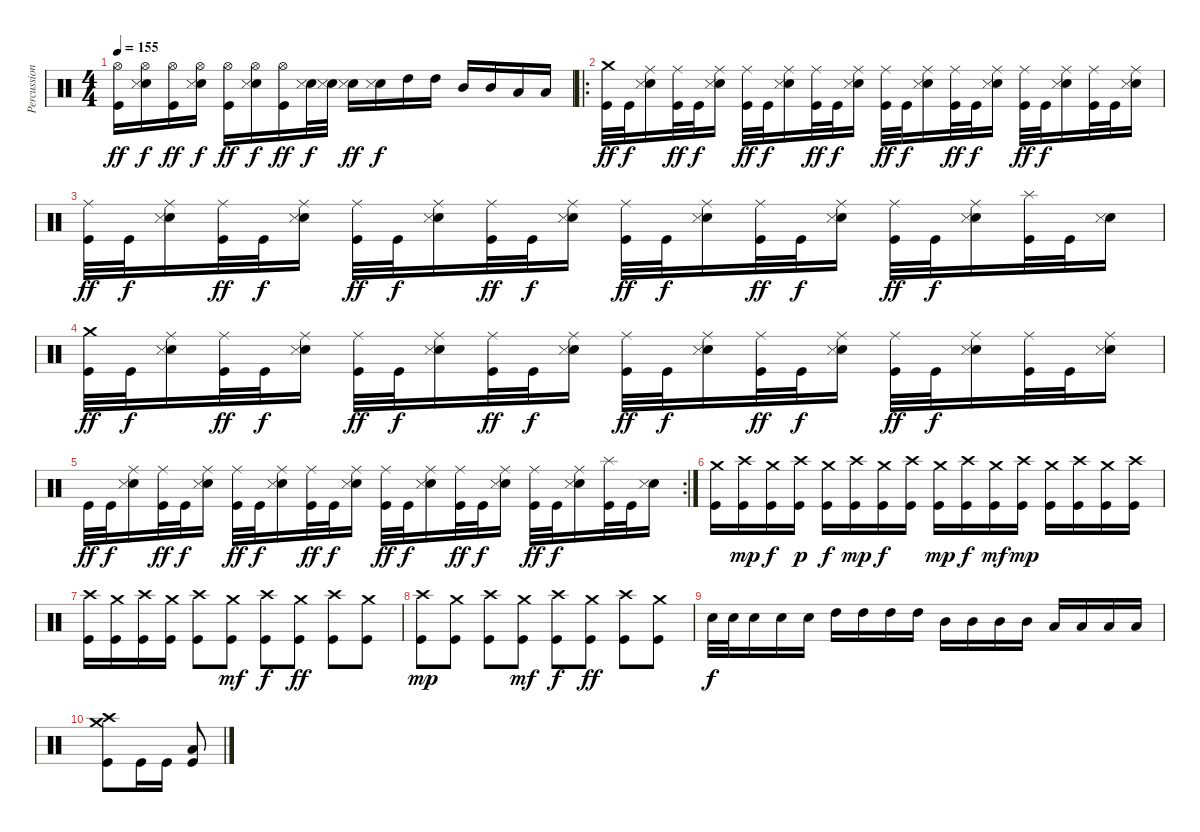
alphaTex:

\track ("Percussions" "Percussion") {instrument percussion}
\staff {score}
\articulation defaults
\ts (4 4)
\tempo 155
\clef neutral
\ks c
("Hi-Hat (open)" "Kick (hit)").16{dy ff} ("Hi-Hat (open)" "Electric Snare (hit)" "Snare (side stick) 3").16{dy f} ("Hi-Hat (open)" "Kick (hit)").16{dy ff} ("Hi-Hat (open)" "Electric Snare (hit)" "Snare (side stick) 3").16{dy f} ("Hi-Hat (open)" "Kick (hit)").16{dy ff} ("Hi-Hat (open)" "Electric Snare (hit)" "Snare (side stick) 3").16{dy f} ("Hi-Hat (open)" "Kick (hit)").16{dy ff} ("Electric Snare (hit)" "Snare (side stick) 3").32{dy f} ("Electric Snare (hit)" "Snare (side stick) 3").32 ("Electric Snare (hit)" "Snare (side stick) 3").16{dy ff} ("Electric Snare (hit)" "Snare (side stick) 3").16{dy f} "High Tom (hit)".16 "High Tom (hit)".16 "Mid Tom (hit)".16 "Mid Tom (hit)".16 "Low Tom (hit)".16 "Low Tom (hit)".16 |
\ro
("Crash medium (hit)" "Kick (hit)").32{dy ff} "Kick (hit)".32{dy f} ("Ride (middle)" "Electric Snare (hit)" "Snare (side stick) 3").16 ("Ride (middle)" "Kick (hit)").32{dy ff} "Kick (hit)".32{dy f} ("Ride (middle)" "Electric Snare (hit)" "Snare (side stick) 3").16 ("Ride (middle)" "Kick (hit)").32{dy ff} "Kick (hit)".32{dy f} ("Ride (middle)" "Electric Snare (hit)" "Snare (side stick) 3").16 ("Ride (middle)" "Kick (hit)").32{dy ff} "Kick (hit)".32{dy f} ("Ride (middle)" "Electric Snare (hit)" "Snare (side stick) 3").16 ("Ride (middle)" "Kick (hit)").32{dy ff} "Kick (hit)".32{dy f} ("Ride (middle)" "Electric Snare (hit)" "Snare (side stick) 3").16 ("Ride (middle)" "Kick (hit)").32{dy ff} "Kick (hit)".32{dy f} ("Ride (middle)" "Electric Snare (hit)" "Snare (side stick) 3").16 ("Ride (middle)" "Kick (hit)").32{dy ff} "Kick (hit)".32{dy f} ("Ride (middle)" "Electric Snare (hit)" "Snare (side stick) 3").16 ("Ride (middle)" "Kick (hit)").32 "Kick (hit)".32 ("Ride (middle)" "Electric Snare (hit)" "Snare (side stick) 3").16 |
("Ride (middle)" "Kick (hit)").32{dy ff} "Kick (hit)".32{dy f} ("Ride (middle)" "Electric Snare (hit)" "Snare (side stick) 3").16 ("Ride (middle)" "Kick (hit)").32{dy ff} "Kick (hit)".32{dy f} ("Ride (middle)" "Electric Snare (hit)" "Snare (side stick) 3").16 ("Ride (middle)" "Kick (hit)").32{dy ff} "Kick (hit)".32{dy f} ("Ride (middle)" "Electric Snare (hit)" "Snare (side stick) 3").16 ("Ride (middle)" "Kick (hit)").32{dy ff} "Kick (hit)".32{dy f} ("Ride (middle)" "Electric Snare (hit)" "Snare (side stick) 3").16 ("Ride (middle)" "Kick (hit)").32{dy ff} "Kick (hit)".32{dy f} ("Ride (middle)" "Electric Snare (hit)" "Snare (side stick) 3").16 ("Ride (middle)" "Kick (hit)").32{dy ff} "Kick (hit)".32{dy f} ("Ride (middle)" "Electric Snare (hit)" "Snare (side stick) 3").16 ("Ride (middle)" "Kick (hit)").32{dy ff} "Kick (hit)".32{dy f} ("Ride (middle)" "Electric Snare (hit)" "Snare (side stick) 3").16 ("Splash (hit)" "Kick (hit)").32 "Kick (hit)".32 ("Electric Snare (hit)" "Snare (side stick) 3").16 |
("Crash medium (hit)" "Kick (hit)").32{dy ff} "Kick (hit)".32{dy f} ("Ride (middle)" "Electric Snare (hit)" "Snare (side stick) 3").16 ("Ride (middle)" "Kick (hit)").32{dy ff} "Kick (hit)".32{dy f} ("Ride (middle)" "Electric Snare (hit)" "Snare (side stick) 3").16 ("Ride (middle)" "Kick (hit)").32{dy ff} "Kick (hit)".32{dy f} ("Ride (middle)" "Electric Snare (hit)" "Snare (side stick) 3").16 ("Ride (middle)" "Kick (hit)").32{dy ff} "Kick (hit)".32{dy f} ("Ride (middle)" "Electric Snare (hit)" "Snare (side stick) 3").16 ("Ride (middle)" "Kick (hit)").32{dy ff} "Kick (hit)".32{dy f} ("Ride (middle)" "Electric Snare (hit)" "Snare (side stick) 3").16 ("Ride (middle)" "Kick (hit)").32{dy ff} "Kick (hit)".32{dy f} ("Ride (middle)" "Electric Snare (hit)" "Snare (side stick) 3").16 ("Ride (middle)" "Kick (hit)").32{dy ff} "Kick (hit)".32{dy f} ("Ride (middle)" "Electric Snare (hit)" "Snare (side stick) 3").16 ("Ride (middle)" "Kick (hit)").32 "Kick (hit)".32 ("Ride (middle)" "Electric Snare (hit)" "Snare (side stick) 3").16 |
\rc 2 "Kick (hit)".32{dy ff} "Kick (hit)".32{dy f}
("Ride (middle)" "Electric Snare (hit)" "Snare (side stick) 3").16 ("Ride (middle)" "Kick (hit)").32{dy ff} "Kick (hit)".32{dy f} ("Ride (middle)" "Electric Snare (hit)" "Snare (side stick) 3").16 ("Ride (middle)" "Kick (hit)").32{dy ff} "Kick (hit)".32{dy f} ("Ride (middle)" "Electric Snare (hit)" "Snare (side stick) 3").16 ("Ride (middle)" "Kick (hit)").32{dy ff} "Kick (hit)".32{dy f} ("Ride (middle)" "Electric Snare (hit)" "Snare (side stick) 3").16 ("Ride (middle)" "Kick (hit)").32{dy ff} "Kick (hit)".32{dy f} ("Ride (middle)" "Electric Snare (hit)" "Snare (side stick) 3").16 ("Ride (middle)" "Kick (hit)").32{dy ff} "Kick (hit)".32{dy f} ("Ride (middle)" "Electric Snare (hit)" "Snare (side stick) 3").16 ("Ride (middle)" "Kick (hit)").32{dy ff} "Kick (hit)".32{dy f} ("Ride (middle)" "Electric Snare (hit)" "Snare (side stick) 3").16 ("Splash (hit)" "Kick (hit)").32 "Kick (hit)".32 ("Electric Snare (hit)" "Snare (side stick) 3").16 |
("Crash medium (hit)" "Kick (hit)").16 ("Crash high (hit)" "Kick (hit)").16{dy mp} ("Crash medium (hit)" "Kick (hit)").16{dy f} ("Crash high (hit)" "Kick (hit)").16{dy p} ("Crash medium (hit)" "Kick (hit)").16{dy f} ("Crash high (hit)" "Kick (hit)").16{dy mp} ("Crash medium (hit)" "Kick (hit)").16{dy f} ("Crash high (hit)" "Kick (hit)").16 ("Crash medium (hit)" "Kick (hit)").16{dy mp} ("Crash high (hit)" "Kick (hit)").16{dy f} ("Crash medium (hit)" "Kick (hit)").16{dy mf} ("Crash high (hit)" "Kick (hit)").16{dy mp} ("Crash medium (hit)" "Kick (hit)").16 ("Crash high (hit)" "Kick (hit)").16 ("Crash medium (hit)" "Kick (hit)").16 ("Crash high (hit)" "Kick (hit)").16 |
("Crash high (hit)" "Kick (hit)").16 ("Crash medium (hit)" "Kick (hit)").16 ("Crash high (hit)" "Kick (hit)").16 ("Crash medium (hit)" "Kick (hit)").16 ("Crash high (hit)" "Kick (hit)").8 ("Crash medium (hit)" "Kick (hit)").8{dy mf} ("Crash high (hit)" "Kick (hit)").8{dy f} ("Crash medium (hit)" "Kick (hit)").8{dy ff} ("Crash high (hit)" "Kick (hit)").8 ("Crash medium (hit)" "Kick (hit)").8 |
("Crash high (hit)" "Kick (hit)").8{dy mp} ("Crash medium (hit)" "Kick (hit)").8 ("Crash high (hit)" "Kick (hit)").8 ("Crash medium (hit)" "Kick (hit)").8{dy mf} ("Crash high (hit)" "Kick (hit)").8{dy f} ("Crash medium (hit)" "Kick (hit)").8{dy ff} ("Crash high (hit)" "Kick (hit)").8 ("Crash medium (hit)" "Kick (hit)").8 |
"Electric Snare (hit)".32{dy f} "Electric Snare (hit)".32 "Electric Snare (hit)".16 "Electric Snare (hit)".16 "Electric Snare (hit)".16 "High Tom (hit)".16 "High Tom (hit)".16 "High Tom (hit)".16 "High Tom (hit)".16 "Mid Tom (hit)".16 "Mid Tom (hit)".16 "Mid Tom (hit)".16 "Mid Tom (hit)".16 "Low Tom (hit)".16 "Low Tom (hit)".16 "Low Tom (hit)".16 "Low Tom (hit)".16 |
("Crash medium (hit)" "Crash high (hit)" "Kick (hit)").8 "Kick (hit)".16 "Kick (hit)".16 ("Low Tom (hit)" "Kick (hit)").8
